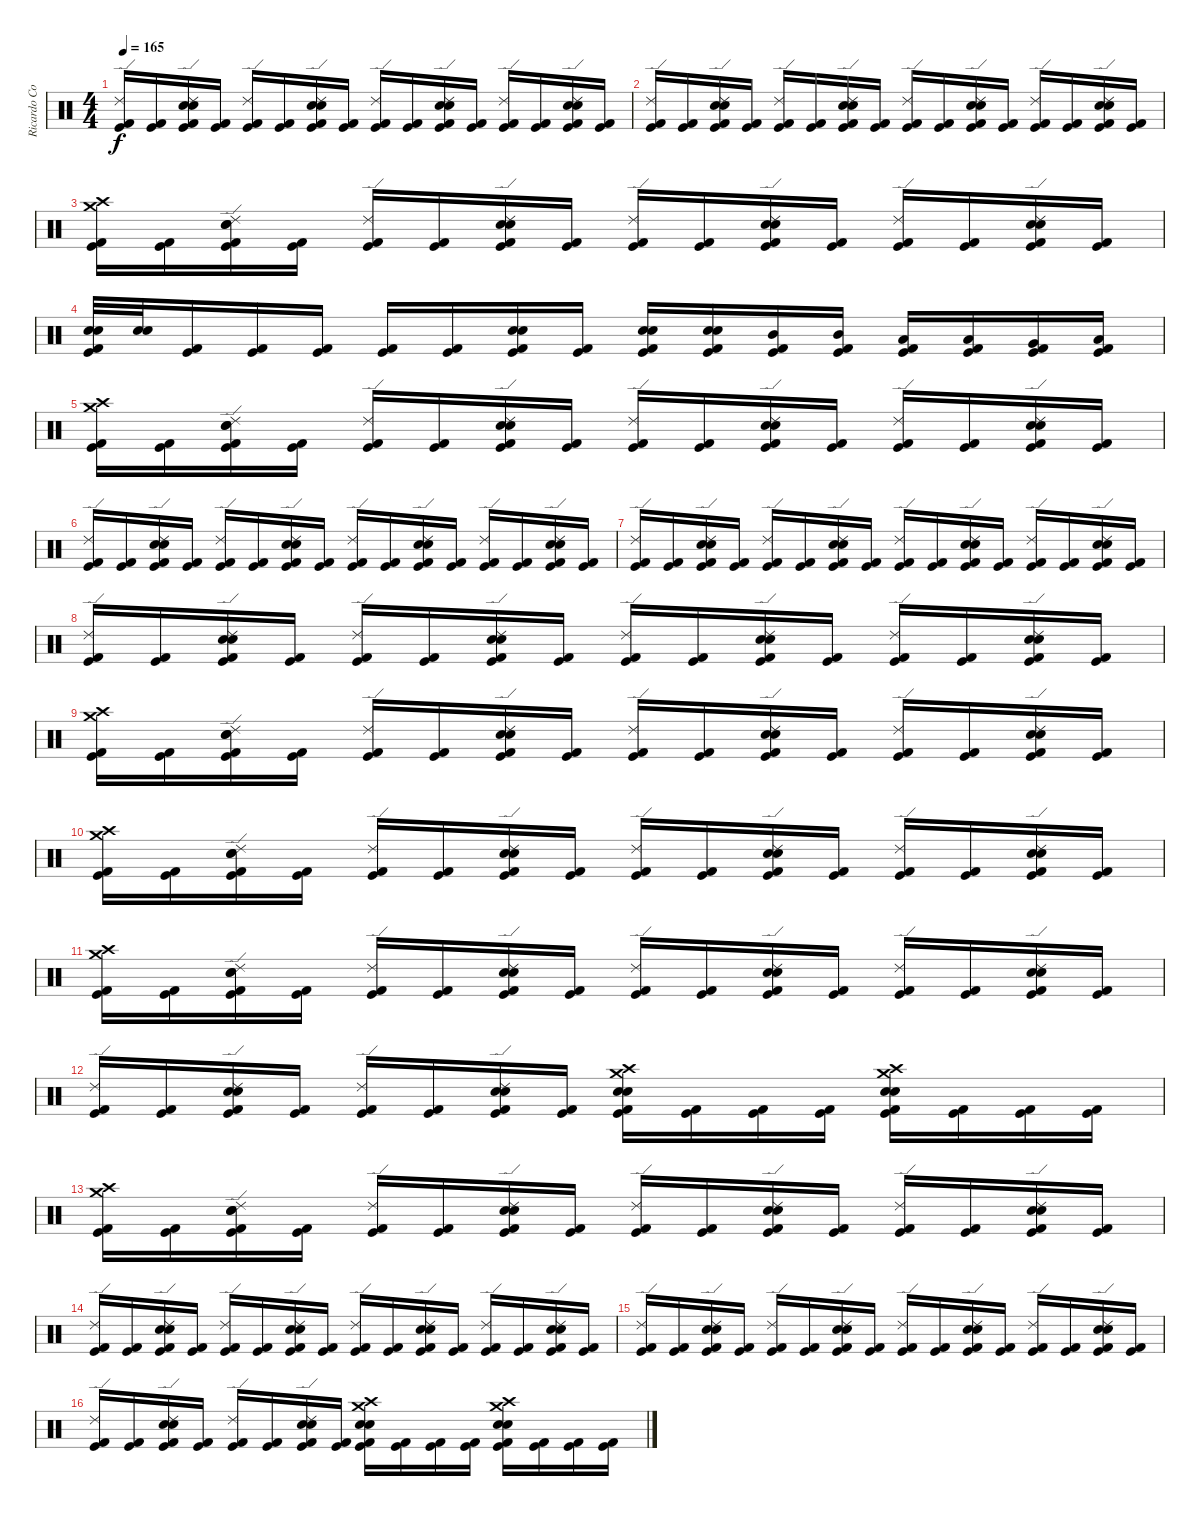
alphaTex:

\track ("Ricardo Confessori" "Ricardo Co") {instrument percussion}
\staff {score}
\articulation defaults
\ts (4 4)
\tempo 165
\clef neutral
\ks c
("Ride (edge) 2" "Kick (hit) 2" "Kick (hit)").16{dy f} ("Kick (hit) 2" "Kick (hit)").16 ("Ride (edge) 2" "Snare (hit) 2" "Electric Snare (hit)" "Kick (hit) 2" "Kick (hit)").16 ("Kick (hit) 2" "Kick (hit)").16 ("Ride (edge) 2" "Kick (hit) 2" "Kick (hit)").16 ("Kick (hit) 2" "Kick (hit)").16 ("Ride (edge) 2" "Electric Snare (hit)" "Snare (hit) 2" "Kick (hit) 2" "Kick (hit)").16 ("Kick (hit) 2" "Kick (hit)").16 ("Ride (edge) 2" "Kick (hit) 2" "Kick (hit)").16 ("Kick (hit) 2" "Kick (hit)").16 ("Ride (edge) 2" "Snare (hit) 2" "Electric Snare (hit)" "Kick (hit) 2" "Kick (hit)").16 ("Kick (hit) 2" "Kick (hit)").16 ("Ride (edge) 2" "Kick (hit) 2" "Kick (hit)").16 ("Kick (hit) 2" "Kick (hit)").16 ("Ride (edge) 2" "Electric Snare (hit)" "Snare (hit) 2" "Kick (hit) 2" "Kick (hit)").16 ("Kick (hit) 2" "Kick (hit)").16 |
("Ride (edge) 2" "Kick (hit) 2" "Kick (hit)").16 ("Kick (hit) 2" "Kick (hit)").16 ("Ride (edge) 2" "Snare (hit) 2" "Electric Snare (hit)" "Kick (hit) 2" "Kick (hit)").16 ("Kick (hit) 2" "Kick (hit)").16 ("Ride (edge) 2" "Kick (hit) 2" "Kick (hit)").16 ("Kick (hit) 2" "Kick (hit)").16 ("Ride (edge) 2" "Electric Snare (hit)" "Snare (hit) 2" "Kick (hit) 2" "Kick (hit)").16 ("Kick (hit) 2" "Kick (hit)").16 ("Ride (edge) 2" "Kick (hit) 2" "Kick (hit)").16 ("Kick (hit) 2" "Kick (hit)").16 ("Ride (edge) 2" "Snare (hit) 2" "Electric Snare (hit)" "Kick (hit) 2" "Kick (hit)").16 ("Kick (hit) 2" "Kick (hit)").16 ("Ride (edge) 2" "Kick (hit) 2" "Kick (hit)").16 ("Kick (hit) 2" "Kick (hit)").16 ("Ride (edge) 2" "Electric Snare (hit)" "Snare (hit) 2" "Kick (hit) 2" "Kick (hit)").16 ("Kick (hit) 2" "Kick (hit)").16 |
("Crash high (hit)" "Crash medium (hit)" "Kick (hit) 2" "Kick (hit)").16 ("Kick (hit) 2" "Kick (hit)").16 ("Ride (edge) 2" "Snare (hit) 2" "Electric Snare (hit)" "Kick (hit) 2" "Kick (hit)").16 ("Kick (hit) 2" "Kick (hit)").16 ("Ride (edge) 2" "Kick (hit) 2" "Kick (hit)").16 ("Kick (hit) 2" "Kick (hit)").16 ("Ride (edge) 2" "Electric Snare (hit)" "Snare (hit) 2" "Kick (hit) 2" "Kick (hit)").16 ("Kick (hit) 2" "Kick (hit)").16 ("Ride (edge) 2" "Kick (hit) 2" "Kick (hit)").16 ("Kick (hit) 2" "Kick (hit)").16 ("Ride (edge) 2" "Snare (hit) 2" "Electric Snare (hit)" "Kick (hit) 2" "Kick (hit)").16 ("Kick (hit) 2" "Kick (hit)").16 ("Ride (edge) 2" "Kick (hit) 2" "Kick (hit)").16 ("Kick (hit) 2" "Kick (hit)").16 ("Ride (edge) 2" "Electric Snare (hit)" "Snare (hit) 2" "Kick (hit) 2" "Kick (hit)").16 ("Kick (hit) 2" "Kick (hit)").16 |
("Electric Snare (hit)" "Kick (hit) 2" "Kick (hit)" "Snare (hit) 2").32 ("Electric Snare (hit)" "Snare (hit) 2").32 ("Kick (hit) 2" "Kick (hit)").16 ("Kick (hit) 2" "Kick (hit)").16 ("Kick (hit) 2" "Kick (hit)").16 ("Kick (hit) 2" "Kick (hit)").16 ("Kick (hit) 2" "Kick (hit)").16 ("Electric Snare (hit)" "Snare (hit) 2" "Kick (hit) 2" "Kick (hit)").16 ("Kick (hit) 2" "Kick (hit)").16 ("Electric Snare (hit)" "Snare (hit) 2" "Kick (hit)" "Kick (hit) 2").16 ("Electric Snare (hit)" "Snare (hit) 2" "Kick (hit) 2" "Kick (hit)").16 ("Mid Tom (hit)" "Kick (hit) 2" "Kick (hit)").16 ("Mid Tom (hit)" "Kick (hit) 2" "Kick (hit)").16 ("Low Tom (hit)" "Kick (hit) 2" "Kick (hit)").16 ("Low Tom (hit)" "Kick (hit) 2" "Kick (hit)").16 ("Very Low Tom (hit)" "Kick (hit) 2" "Kick (hit)").16 ("Low Floor Tom (hit)" "Kick (hit) 2" "Kick (hit)").16 |
("Crash high (hit)" "Crash medium (hit)" "Kick (hit) 2" "Kick (hit)").16 ("Kick (hit) 2" "Kick (hit)").16 ("Ride (edge) 2" "Snare (hit) 2" "Electric Snare (hit)" "Kick (hit) 2" "Kick (hit)").16 ("Kick (hit) 2" "Kick (hit)").16 ("Ride (edge) 2" "Kick (hit) 2" "Kick (hit)").16 ("Kick (hit) 2" "Kick (hit)").16 ("Ride (edge) 2" "Electric Snare (hit)" "Snare (hit) 2" "Kick (hit) 2" "Kick (hit)").16 ("Kick (hit) 2" "Kick (hit)").16 ("Ride (edge) 2" "Kick (hit) 2" "Kick (hit)").16 ("Kick (hit) 2" "Kick (hit)").16 ("Ride (edge) 2" "Snare (hit) 2" "Electric Snare (hit)" "Kick (hit) 2" "Kick (hit)").16 ("Kick (hit) 2" "Kick (hit)").16 ("Ride (edge) 2" "Kick (hit) 2" "Kick (hit)").16 ("Kick (hit) 2" "Kick (hit)").16 ("Ride (edge) 2" "Electric Snare (hit)" "Snare (hit) 2" "Kick (hit) 2" "Kick (hit)").16 ("Kick (hit) 2" "Kick (hit)").16 |
("Ride (edge) 2" "Kick (hit) 2" "Kick (hit)").16 ("Kick (hit) 2" "Kick (hit)").16 ("Ride (edge) 2" "Snare (hit) 2" "Electric Snare (hit)" "Kick (hit) 2" "Kick (hit)").16 ("Kick (hit) 2" "Kick (hit)").16 ("Ride (edge) 2" "Kick (hit) 2" "Kick (hit)").16 ("Kick (hit) 2" "Kick (hit)").16 ("Ride (edge) 2" "Electric Snare (hit)" "Snare (hit) 2" "Kick (hit) 2" "Kick (hit)").16 ("Kick (hit) 2" "Kick (hit)").16 ("Ride (edge) 2" "Kick (hit) 2" "Kick (hit)").16 ("Kick (hit) 2" "Kick (hit)").16 ("Ride (edge) 2" "Snare (hit) 2" "Electric Snare (hit)" "Kick (hit) 2" "Kick (hit)").16 ("Kick (hit) 2" "Kick (hit)").16 ("Ride (edge) 2" "Kick (hit) 2" "Kick (hit)").16 ("Kick (hit) 2" "Kick (hit)").16 ("Ride (edge) 2" "Electric Snare (hit)" "Snare (hit) 2" "Kick (hit) 2" "Kick (hit)").16 ("Kick (hit) 2" "Kick (hit)").16 |
("Ride (edge) 2" "Kick (hit) 2" "Kick (hit)").16 ("Kick (hit) 2" "Kick (hit)").16 ("Ride (edge) 2" "Snare (hit) 2" "Electric Snare (hit)" "Kick (hit) 2" "Kick (hit)").16 ("Kick (hit) 2" "Kick (hit)").16 ("Ride (edge) 2" "Kick (hit) 2" "Kick (hit)").16 ("Kick (hit) 2" "Kick (hit)").16 ("Ride (edge) 2" "Electric Snare (hit)" "Snare (hit) 2" "Kick (hit) 2" "Kick (hit)").16 ("Kick (hit) 2" "Kick (hit)").16 ("Ride (edge) 2" "Kick (hit) 2" "Kick (hit)").16 ("Kick (hit) 2" "Kick (hit)").16 ("Ride (edge) 2" "Snare (hit) 2" "Electric Snare (hit)" "Kick (hit) 2" "Kick (hit)").16 ("Kick (hit) 2" "Kick (hit)").16 ("Ride (edge) 2" "Kick (hit) 2" "Kick (hit)").16 ("Kick (hit) 2" "Kick (hit)").16 ("Ride (edge) 2" "Electric Snare (hit)" "Snare (hit) 2" "Kick (hit) 2" "Kick (hit)").16 ("Kick (hit) 2" "Kick (hit)").16 |
("Ride (edge) 2" "Kick (hit) 2" "Kick (hit)").16 ("Kick (hit) 2" "Kick (hit)").16 ("Ride (edge) 2" "Snare (hit) 2" "Electric Snare (hit)" "Kick (hit) 2" "Kick (hit)").16 ("Kick (hit) 2" "Kick (hit)").16 ("Ride (edge) 2" "Kick (hit) 2" "Kick (hit)").16 ("Kick (hit) 2" "Kick (hit)").16 ("Ride (edge) 2" "Electric Snare (hit)" "Snare (hit) 2" "Kick (hit) 2" "Kick (hit)").16 ("Kick (hit) 2" "Kick (hit)").16 ("Ride (edge) 2" "Kick (hit) 2" "Kick (hit)").16 ("Kick (hit) 2" "Kick (hit)").16 ("Ride (edge) 2" "Snare (hit) 2" "Electric Snare (hit)" "Kick (hit) 2" "Kick (hit)").16 ("Kick (hit) 2" "Kick (hit)").16 ("Ride (edge) 2" "Kick (hit) 2" "Kick (hit)").16 ("Kick (hit) 2" "Kick (hit)").16 ("Ride (edge) 2" "Electric Snare (hit)" "Snare (hit) 2" "Kick (hit) 2" "Kick (hit)").16 ("Kick (hit) 2" "Kick (hit)").16 |
("Crash high (hit)" "Crash medium (hit)" "Kick (hit) 2" "Kick (hit)").16 ("Kick (hit) 2" "Kick (hit)").16 ("Ride (edge) 2" "Snare (hit) 2" "Electric Snare (hit)" "Kick (hit) 2" "Kick (hit)").16 ("Kick (hit) 2" "Kick (hit)").16 ("Ride (edge) 2" "Kick (hit) 2" "Kick (hit)").16 ("Kick (hit) 2" "Kick (hit)").16 ("Ride (edge) 2" "Electric Snare (hit)" "Snare (hit) 2" "Kick (hit) 2" "Kick (hit)").16 ("Kick (hit) 2" "Kick (hit)").16 ("Ride (edge) 2" "Kick (hit) 2" "Kick (hit)").16 ("Kick (hit) 2" "Kick (hit)").16 ("Ride (edge) 2" "Snare (hit) 2" "Electric Snare (hit)" "Kick (hit) 2" "Kick (hit)").16 ("Kick (hit) 2" "Kick (hit)").16 ("Ride (edge) 2" "Kick (hit) 2" "Kick (hit)").16 ("Kick (hit) 2" "Kick (hit)").16 ("Ride (edge) 2" "Electric Snare (hit)" "Snare (hit) 2" "Kick (hit) 2" "Kick (hit)").16 ("Kick (hit) 2" "Kick (hit)").16 |
("Crash high (hit)" "Crash medium (hit)" "Kick (hit) 2" "Kick (hit)").16 ("Kick (hit) 2" "Kick (hit)").16 ("Ride (edge) 2" "Snare (hit) 2" "Electric Snare (hit)" "Kick (hit) 2" "Kick (hit)").16 ("Kick (hit) 2" "Kick (hit)").16 ("Ride (edge) 2" "Kick (hit) 2" "Kick (hit)").16 ("Kick (hit) 2" "Kick (hit)").16 ("Ride (edge) 2" "Electric Snare (hit)" "Snare (hit) 2" "Kick (hit) 2" "Kick (hit)").16 ("Kick (hit) 2" "Kick (hit)").16 ("Ride (edge) 2" "Kick (hit) 2" "Kick (hit)").16 ("Kick (hit) 2" "Kick (hit)").16 ("Ride (edge) 2" "Snare (hit) 2" "Electric Snare (hit)" "Kick (hit) 2" "Kick (hit)").16 ("Kick (hit) 2" "Kick (hit)").16 ("Ride (edge) 2" "Kick (hit) 2" "Kick (hit)").16 ("Kick (hit) 2" "Kick (hit)").16 ("Ride (edge) 2" "Electric Snare (hit)" "Snare (hit) 2" "Kick (hit) 2" "Kick (hit)").16 ("Kick (hit) 2" "Kick (hit)").16 |
("Crash high (hit)" "Crash medium (hit)" "Kick (hit) 2" "Kick (hit)").16 ("Kick (hit) 2" "Kick (hit)").16 ("Ride (edge) 2" "Snare (hit) 2" "Electric Snare (hit)" "Kick (hit) 2" "Kick (hit)").16 ("Kick (hit) 2" "Kick (hit)").16 ("Ride (edge) 2" "Kick (hit) 2" "Kick (hit)").16 ("Kick (hit) 2" "Kick (hit)").16 ("Ride (edge) 2" "Electric Snare (hit)" "Snare (hit) 2" "Kick (hit) 2" "Kick (hit)").16 ("Kick (hit) 2" "Kick (hit)").16 ("Ride (edge) 2" "Kick (hit) 2" "Kick (hit)").16 ("Kick (hit) 2" "Kick (hit)").16 ("Ride (edge) 2" "Snare (hit) 2" "Electric Snare (hit)" "Kick (hit) 2" "Kick (hit)").16 ("Kick (hit) 2" "Kick (hit)").16 ("Ride (edge) 2" "Kick (hit) 2" "Kick (hit)").16 ("Kick (hit) 2" "Kick (hit)").16 ("Ride (edge) 2" "Electric Snare (hit)" "Snare (hit) 2" "Kick (hit) 2" "Kick (hit)").16 ("Kick (hit) 2" "Kick (hit)").16 |
("Ride (edge) 2" "Kick (hit) 2" "Kick (hit)").16 ("Kick (hit) 2" "Kick (hit)").16 ("Ride (edge) 2" "Snare (hit) 2" "Electric Snare (hit)" "Kick (hit) 2" "Kick (hit)").16 ("Kick (hit) 2" "Kick (hit)").16 ("Ride (edge) 2" "Kick (hit) 2" "Kick (hit)").16 ("Kick (hit) 2" "Kick (hit)").16 ("Ride (edge) 2" "Electric Snare (hit)" "Snare (hit) 2" "Kick (hit) 2" "Kick (hit)").16 ("Kick (hit) 2" "Kick (hit)").16 ("Crash high (hit)" "Electric Snare (hit)" "Snare (hit) 2" "Crash medium (hit)" "Kick (hit) 2" "Kick (hit)").16 ("Kick (hit) 2" "Kick (hit)").16 ("Kick (hit) 2" "Kick (hit)").16 ("Kick (hit) 2" "Kick (hit)").16 ("Crash high (hit)" "Electric Snare (hit)" "Snare (hit) 2" "Crash medium (hit)" "Kick (hit) 2" "Kick (hit)").16 ("Kick (hit) 2" "Kick (hit)").16 ("Kick (hit) 2" "Kick (hit)").16 ("Kick (hit) 2" "Kick (hit)").16 |
("Crash high (hit)" "Crash medium (hit)" "Kick (hit) 2" "Kick (hit)").16 ("Kick (hit) 2" "Kick (hit)").16 ("Ride (edge) 2" "Electric Snare (hit)" "Snare (hit) 2" "Kick (hit) 2" "Kick (hit)").16 ("Kick (hit) 2" "Kick (hit)").16 ("Ride (edge) 2" "Kick (hit) 2" "Kick (hit)").16 ("Kick (hit) 2" "Kick (hit)").16 ("Electric Snare (hit)" "Snare (hit) 2" "Ride (edge) 2" "Kick (hit) 2" "Kick (hit)").16 ("Kick (hit) 2" "Kick (hit)").16 ("Ride (edge) 2" "Kick (hit) 2" "Kick (hit)").16 ("Kick (hit) 2" "Kick (hit)").16 ("Ride (edge) 2" "Snare (hit) 2" "Electric Snare (hit)" "Kick (hit) 2" "Kick (hit)").16 ("Kick (hit) 2" "Kick (hit)").16 ("Ride (edge) 2" "Kick (hit) 2" "Kick (hit)").16 ("Kick (hit) 2" "Kick (hit)").16 ("Ride (edge) 2" "Electric Snare (hit)" "Snare (hit) 2" "Kick (hit) 2" "Kick (hit)").16 ("Kick (hit) 2" "Kick (hit)").16 |
("Ride (edge) 2" "Kick (hit) 2" "Kick (hit)").16 ("Kick (hit) 2" "Kick (hit)").16 ("Ride (edge) 2" "Snare (hit) 2" "Electric Snare (hit)" "Kick (hit) 2" "Kick (hit)").16 ("Kick (hit) 2" "Kick (hit)").16 ("Ride (edge) 2" "Kick (hit) 2" "Kick (hit)").16 ("Kick (hit) 2" "Kick (hit)").16 ("Ride (edge) 2" "Electric Snare (hit)" "Snare (hit) 2" "Kick (hit) 2" "Kick (hit)").16 ("Kick (hit) 2" "Kick (hit)").16 ("Ride (edge) 2" "Kick (hit) 2" "Kick (hit)").16 ("Kick (hit) 2" "Kick (hit)").16 ("Ride (edge) 2" "Snare (hit) 2" "Electric Snare (hit)" "Kick (hit) 2" "Kick (hit)").16 ("Kick (hit) 2" "Kick (hit)").16 ("Ride (edge) 2" "Kick (hit) 2" "Kick (hit)").16 ("Kick (hit) 2" "Kick (hit)").16 ("Ride (edge) 2" "Electric Snare (hit)" "Snare (hit) 2" "Kick (hit) 2" "Kick (hit)").16 ("Kick (hit) 2" "Kick (hit)").16 |
("Ride (edge) 2" "Kick (hit) 2" "Kick (hit)").16 ("Kick (hit) 2" "Kick (hit)").16 ("Ride (edge) 2" "Snare (hit) 2" "Electric Snare (hit)" "Kick (hit) 2" "Kick (hit)").16 ("Kick (hit) 2" "Kick (hit)").16 ("Ride (edge) 2" "Kick (hit) 2" "Kick (hit)").16 ("Kick (hit) 2" "Kick (hit)").16 ("Ride (edge) 2" "Electric Snare (hit)" "Snare (hit) 2" "Kick (hit) 2" "Kick (hit)").16 ("Kick (hit) 2" "Kick (hit)").16 ("Ride (edge) 2" "Kick (hit) 2" "Kick (hit)").16 ("Kick (hit) 2" "Kick (hit)").16 ("Ride (edge) 2" "Snare (hit) 2" "Electric Snare (hit)" "Kick (hit) 2" "Kick (hit)").16 ("Kick (hit) 2" "Kick (hit)").16 ("Ride (edge) 2" "Kick (hit) 2" "Kick (hit)").16 ("Kick (hit) 2" "Kick (hit)").16 ("Ride (edge) 2" "Electric Snare (hit)" "Snare (hit) 2" "Kick (hit) 2" "Kick (hit)").16 ("Kick (hit) 2" "Kick (hit)").16 |
("Ride (edge) 2" "Kick (hit) 2" "Kick (hit)").16 ("Kick (hit) 2" "Kick (hit)").16 ("Ride (edge) 2" "Snare (hit) 2" "Electric Snare (hit)" "Kick (hit) 2" "Kick (hit)").16 ("Kick (hit) 2" "Kick (hit)").16 ("Ride (edge) 2" "Kick (hit) 2" "Kick (hit)").16 ("Kick (hit) 2" "Kick (hit)").16 ("Ride (edge) 2" "Electric Snare (hit)" "Snare (hit) 2" "Kick (hit) 2" "Kick (hit)").16 ("Kick (hit) 2" "Kick (hit)").16 ("Electric Snare (hit)" "Snare (hit) 2" "Crash high (hit)" "Crash medium (hit)" "Kick (hit) 2" "Kick (hit)").16 ("Kick (hit) 2" "Kick (hit)").16 ("Kick (hit) 2" "Kick (hit)").16 ("Kick (hit) 2" "Kick (hit)").16 ("Crash high (hit)" "Electric Snare (hit)" "Snare (hit) 2" "Crash medium (hit)" "Kick (hit) 2" "Kick (hit)").16 ("Kick (hit) 2" "Kick (hit)").16 ("Kick (hit) 2" "Kick (hit)").16 ("Kick (hit) 2" "Kick (hit)").16
